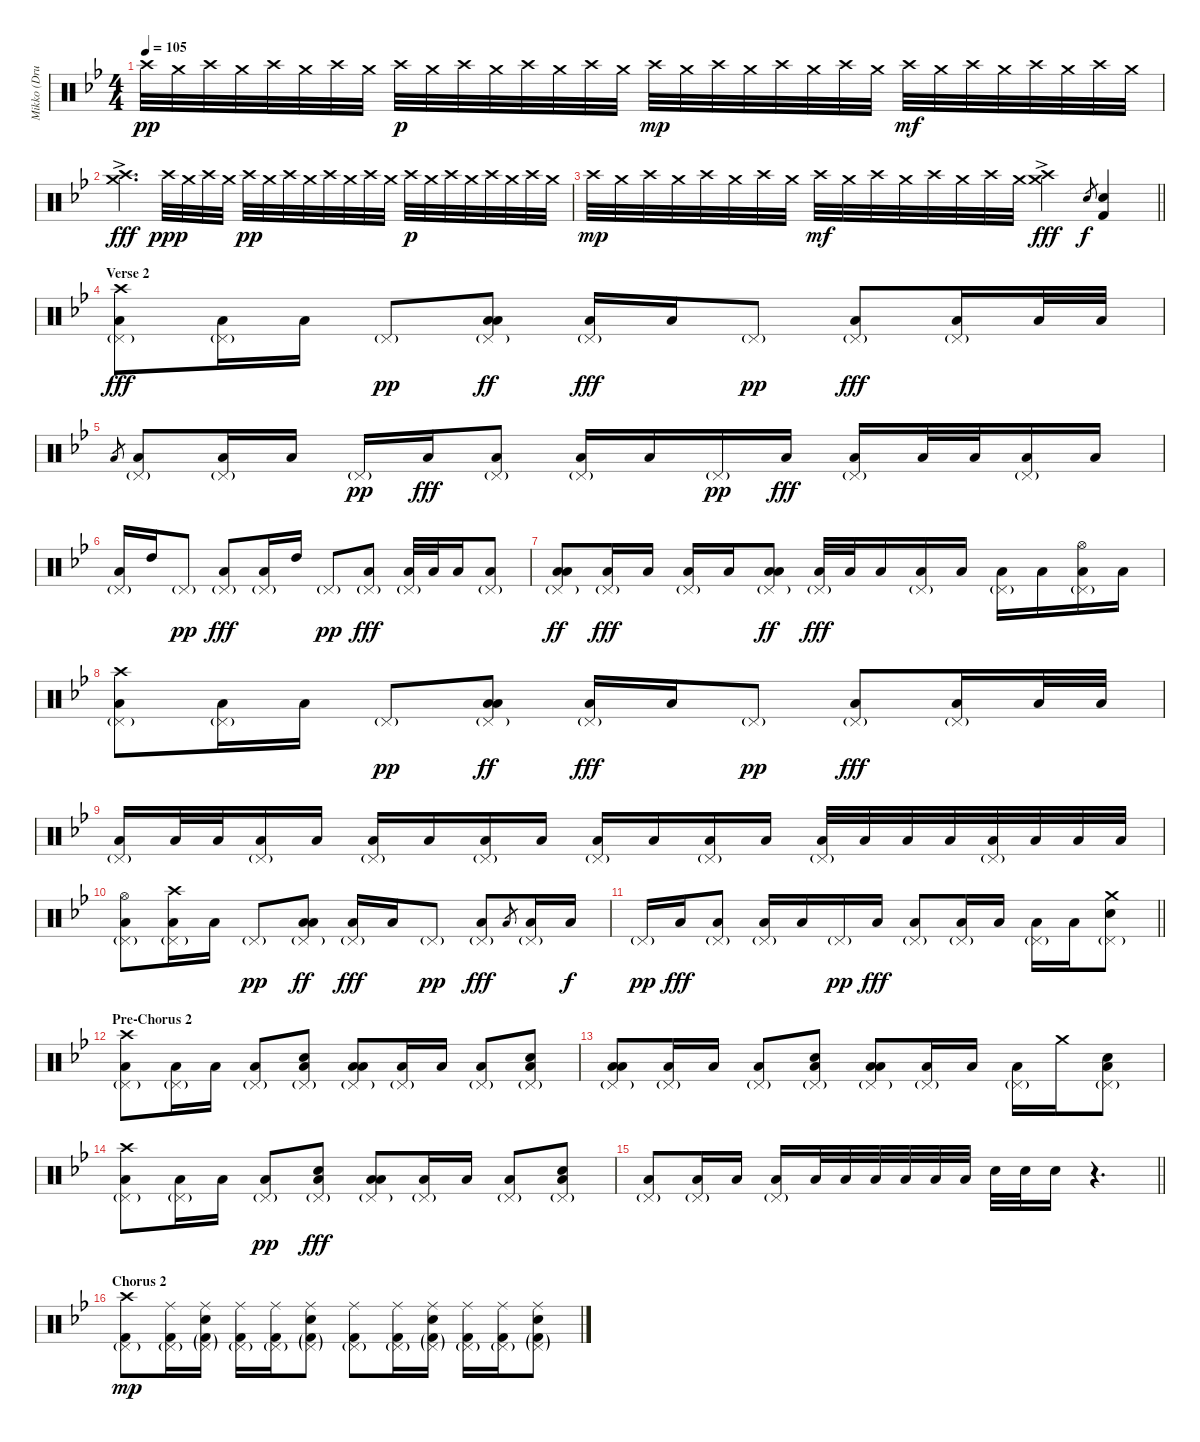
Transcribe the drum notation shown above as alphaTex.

\track ("Mikko (Drums)" "Mikko (Dru") {instrument percussion}
\staff {score}
\articulation defaults
\ts (4 4)
\tempo 105
\clef neutral
\ks bb "Crash high (hit)".32{dy pp} "Crash medium (hit)".32 "Crash high (hit)".32 "Crash medium (hit)".32 "Crash high (hit)".32 "Crash medium (hit)".32 "Crash high (hit)".32 "Crash medium (hit)".32 "Crash high (hit)".32{dy p} "Crash medium (hit)".32 "Crash high (hit)".32 "Crash medium (hit)".32 "Crash high (hit)".32 "Crash medium (hit)".32 "Crash high (hit)".32 "Crash medium (hit)".32 "Crash high (hit)".32{dy mp} "Crash medium (hit)".32 "Crash high (hit)".32 "Crash medium (hit)".32 "Crash high (hit)".32 "Crash medium (hit)".32 "Crash high (hit)".32 "Crash medium (hit)".32 "Crash high (hit)".32{dy mf} "Crash medium (hit)".32 "Crash high (hit)".32 "Crash medium (hit)".32 "Crash high (hit)".32 "Crash medium (hit)".32 "Crash high (hit)".32 "Crash medium (hit)".32
|
("Crash high (hit)"{ac} "Crash medium (hit)"{ac}).4{d dy fff} "Crash high (hit)".32{dy ppp} "Crash medium (hit)".32 "Crash high (hit)".32 "Crash medium (hit)".32 "Crash high (hit)".32{dy pp} "Crash medium (hit)".32 "Crash high (hit)".32 "Crash medium (hit)".32 "Crash high (hit)".32 "Crash medium (hit)".32 "Crash high (hit)".32 "Crash medium (hit)".32 "Crash high (hit)".32{dy p} "Crash medium (hit)".32 "Crash high (hit)".32 "Crash medium (hit)".32 "Crash high (hit)".32 "Crash medium (hit)".32 "Crash high (hit)".32 "Crash medium (hit)".32 |
\barLineRight lightlight "Crash high (hit)".32{dy mp} "Crash medium (hit)".32 "Crash high (hit)".32 "Crash medium (hit)".32 "Crash high (hit)".32 "Crash medium (hit)".32 "Crash high (hit)".32 "Crash medium (hit)".32 "Crash high (hit)".32{dy mf} "Crash medium (hit)".32 "Crash high (hit)".32 "Crash medium (hit)".32 "Crash high (hit)".32 "Crash medium (hit)".32 "Crash high (hit)".32 "Crash medium (hit)".32
("Crash high (hit)"{ac} "Crash medium (hit)"{ac}).4{dy fff} "Electric Snare (hit)".8{gr dy f} ("Electric Snare (hit)" "Kick (hit) 2").4 |
\section ("" "Verse 2")
("Crash high (hit)" "Pedal Hi-Hat (hit)"{g} "Low Floor Tom (hit)").8{dy fff} ("Pedal Hi-Hat (hit)"{g} "Low Floor Tom (hit)").16 "Low Tom (hit)".16 "Pedal Hi-Hat (hit)"{g}.8{dy pp} ("Pedal Hi-Hat (hit)"{g} "Low Tom (hit)" "Low Floor Tom (hit)").8{dy ff} ("Pedal Hi-Hat (hit)"{g} "Low Floor Tom (hit)").16{dy fff} "Low Floor Tom (hit)".16 "Pedal Hi-Hat (hit)"{g}.8{dy pp} ("Pedal Hi-Hat (hit)"{g} "Low Floor Tom (hit)").8{dy fff} ("Pedal Hi-Hat (hit)"{g} "Low Tom (hit)").16 "Low Tom (hit)".32 "Low Tom (hit)".32 |
"Low Tom (hit)".8{gr} ("Pedal Hi-Hat (hit)"{g} "Low Floor Tom (hit)").8 ("Pedal Hi-Hat (hit)"{g} "Low Floor Tom (hit)").16 "Low Tom (hit)".16 "Pedal Hi-Hat (hit)"{g}.16{dy pp} "Low Floor Tom (hit)".16{dy fff} ("Pedal Hi-Hat (hit)"{g} "Low Tom (hit)").8 ("Pedal Hi-Hat (hit)"{g} "Low Floor Tom (hit)").16 "Low Tom (hit)".16 "Pedal Hi-Hat (hit)"{g}.16{dy pp} "Low Floor Tom (hit)".16{dy fff} ("Pedal Hi-Hat (hit)"{g} "Low Tom (hit)").16 "Low Tom (hit)".32 "Low Tom (hit)".32 ("Pedal Hi-Hat (hit)"{g} "Low Tom (hit)").16 "Low Tom (hit)".16 |
("Pedal Hi-Hat (hit)"{g} "Low Floor Tom (hit)").16 "High Tom (hit)".16 "Pedal Hi-Hat (hit)"{g}.8{dy pp} ("Pedal Hi-Hat (hit)"{g} "Low Floor Tom (hit)").8{dy fff} ("Pedal Hi-Hat (hit)"{g} "Low Floor Tom (hit)").16 "High Tom (hit)".16 "Pedal Hi-Hat (hit)"{g}.8{dy pp} ("Pedal Hi-Hat (hit)"{g} "Low Floor Tom (hit)").8{dy fff} ("Pedal Hi-Hat (hit)"{g} "Low Floor Tom (hit)").32 "Low Floor Tom (hit)".32 "Low Floor Tom (hit)".16 ("Pedal Hi-Hat (hit)"{g} "Low Floor Tom (hit)").8 |
("Pedal Hi-Hat (hit)"{g} "Low Floor Tom (hit)" "Low Tom (hit)").8{dy ff} ("Pedal Hi-Hat (hit)"{g} "Low Floor Tom (hit)").16{dy fff} "Low Tom (hit)".16 ("Pedal Hi-Hat (hit)"{g} "Low Floor Tom (hit)").16 "Low Tom (hit)".16 ("Pedal Hi-Hat (hit)"{g} "Low Floor Tom (hit)" "Low Tom (hit)").8{dy ff} ("Pedal Hi-Hat (hit)"{g} "Low Floor Tom (hit)").32{dy fff} "Low Floor Tom (hit)".32 "Low Floor Tom (hit)".16 ("Pedal Hi-Hat (hit)"{g} "Low Floor Tom (hit)").16 "Low Floor Tom (hit)".16 ("Pedal Hi-Hat (hit)"{g} "Low Floor Tom (hit)").16 "Low Floor Tom (hit)".16 ("Hi-Hat (open)" "Pedal Hi-Hat (hit)"{g} "Low Floor Tom (hit)").16 "Low Tom (hit)".16 |
("Crash high (hit)" "Pedal Hi-Hat (hit)"{g} "Low Floor Tom (hit)").8 ("Pedal Hi-Hat (hit)"{g} "Low Floor Tom (hit)").16 "Low Tom (hit)".16 "Pedal Hi-Hat (hit)"{g}.8{dy pp} ("Pedal Hi-Hat (hit)"{g} "Low Tom (hit)" "Low Floor Tom (hit)").8{dy ff} ("Pedal Hi-Hat (hit)"{g} "Low Floor Tom (hit)").16{dy fff} "Low Tom (hit)".16 "Pedal Hi-Hat (hit)"{g}.8{dy pp} ("Pedal Hi-Hat (hit)"{g} "Low Floor Tom (hit)").8{dy fff} ("Pedal Hi-Hat (hit)"{g} "Low Tom (hit)").16 "Low Tom (hit)".32 "Low Tom (hit)".32 |
("Pedal Hi-Hat (hit)"{g} "Low Tom (hit)").16 "Low Tom (hit)".32 "Low Tom (hit)".32 ("Pedal Hi-Hat (hit)"{g} "Low Tom (hit)").16 "Low Tom (hit)".16 ("Pedal Hi-Hat (hit)"{g} "Low Floor Tom (hit)").16 "Low Tom (hit)".16 ("Pedal Hi-Hat (hit)"{g} "Low Floor Tom (hit)").16 "Low Tom (hit)".16 ("Pedal Hi-Hat (hit)"{g} "Low Floor Tom (hit)").16 "Low Tom (hit)".16 ("Pedal Hi-Hat (hit)"{g} "Low Floor Tom (hit)").16 "Low Tom (hit)".16 ("Pedal Hi-Hat (hit)"{g} "Low Tom (hit)").32 "Low Tom (hit)".32 "Low Tom (hit)".32 "Low Tom (hit)".32 ("Pedal Hi-Hat (hit)"{g} "Low Tom (hit)").32 "Low Tom (hit)".32 "Low Tom (hit)".32 "Low Tom (hit)".32 |
("Hi-Hat (open)" "Pedal Hi-Hat (hit)"{g} "Low Floor Tom (hit)").8 ("Crash high (hit)" "Pedal Hi-Hat (hit)"{g} "Low Floor Tom (hit)").16 "Low Tom (hit)".16 "Pedal Hi-Hat (hit)"{g}.8{dy pp} ("Pedal Hi-Hat (hit)"{g} "Low Tom (hit)" "Low Floor Tom (hit)").8{dy ff} ("Pedal Hi-Hat (hit)"{g} "Low Floor Tom (hit)").16{dy fff} "Low Tom (hit)".16 "Pedal Hi-Hat (hit)"{g}.8{dy pp} ("Pedal Hi-Hat (hit)"{g} "Low Floor Tom (hit)").8{dy fff} "Low Floor Tom (hit)".8{gr} ("Pedal Hi-Hat (hit)"{g} "Low Floor Tom (hit)").16 "Low Tom (hit)".16{dy f} |
\barLineRight lightlight "Pedal Hi-Hat (hit)"{g}.16{dy pp} "Low Floor Tom (hit)".16{dy fff}
("Pedal Hi-Hat (hit)"{g} "Low Tom (hit)").8 ("Pedal Hi-Hat (hit)"{g} "Low Floor Tom (hit)").16 "Low Tom (hit)".16 "Pedal Hi-Hat (hit)"{g}.16{dy pp} "Low Floor Tom (hit)".16{dy fff} ("Pedal Hi-Hat (hit)"{g} "Low Tom (hit)").8 ("Pedal Hi-Hat (hit)"{g} "Low Floor Tom (hit)").16 "Low Tom (hit)".16 ("Pedal Hi-Hat (hit)"{g} "Low Floor Tom (hit)").16 "Low Floor Tom (hit)".16 ("Crash medium (hit)" "Pedal Hi-Hat (hit)"{g} "Electric Snare (hit)").8 |
\section ("" "Pre-Chorus 2")
("Crash high (hit)" "Pedal Hi-Hat (hit)"{g} "Low Tom (hit)").8 ("Pedal Hi-Hat (hit)"{g} "Low Floor Tom (hit)").16 "Low Floor Tom (hit)".16 ("Pedal Hi-Hat (hit)"{g} "Low Floor Tom (hit)").8 ("Pedal Hi-Hat (hit)"{g} "Low Floor Tom (hit)" "Electric Snare (hit)").8 ("Pedal Hi-Hat (hit)"{g} "Low Floor Tom (hit)" "Low Tom (hit)").8 ("Pedal Hi-Hat (hit)"{g} "Low Floor Tom (hit)").16 "Low Floor Tom (hit)".16 ("Pedal Hi-Hat (hit)"{g} "Low Floor Tom (hit)").8 ("Pedal Hi-Hat (hit)"{g} "Low Floor Tom (hit)" "Electric Snare (hit)").8 |
("Pedal Hi-Hat (hit)"{g} "Low Floor Tom (hit)" "Low Tom (hit)").8 ("Pedal Hi-Hat (hit)"{g} "Low Floor Tom (hit)").16 "Low Floor Tom (hit)".16 ("Pedal Hi-Hat (hit)"{g} "Low Floor Tom (hit)").8 ("Pedal Hi-Hat (hit)"{g} "Low Floor Tom (hit)" "Electric Snare (hit)").8 ("Pedal Hi-Hat (hit)"{g} "Low Floor Tom (hit)" "Low Tom (hit)").8 ("Pedal Hi-Hat (hit)"{g} "Low Floor Tom (hit)").16 "Low Floor Tom (hit)".16 ("Pedal Hi-Hat (hit)"{g} "Low Floor Tom (hit)").16 "Crash medium (hit)".16 ("Pedal Hi-Hat (hit)"{g} "Low Floor Tom (hit)" "Electric Snare (hit)").8 |
("Crash high (hit)" "Pedal Hi-Hat (hit)"{g} "Low Tom (hit)").8 ("Pedal Hi-Hat (hit)"{g} "Low Floor Tom (hit)").16 "Low Floor Tom (hit)".16 ("Pedal Hi-Hat (hit)"{g} "Low Floor Tom (hit)").8{dy pp} ("Pedal Hi-Hat (hit)"{g} "Low Floor Tom (hit)" "Electric Snare (hit)").8{dy fff} ("Pedal Hi-Hat (hit)"{g} "Low Floor Tom (hit)" "Low Tom (hit)").8 ("Pedal Hi-Hat (hit)"{g} "Low Floor Tom (hit)").16 "Low Floor Tom (hit)".16 ("Pedal Hi-Hat (hit)"{g} "Low Floor Tom (hit)").8 ("Pedal Hi-Hat (hit)"{g} "Low Floor Tom (hit)" "Electric Snare (hit)").8 |
\barLineRight lightlight
("Pedal Hi-Hat (hit)"{g} "Low Floor Tom (hit)").8 ("Pedal Hi-Hat (hit)"{g} "Low Tom (hit)").16 "Low Floor Tom (hit)".16 ("Pedal Hi-Hat (hit)"{g} "Low Tom (hit)").16 "Low Tom (hit)".32 "Low Floor Tom (hit)".32 "Low Tom (hit)".32 "Low Floor Tom (hit)".32 "Low Tom (hit)".32 "Low Floor Tom (hit)".32 "Electric Snare (hit)".32 "Electric Snare (hit)".32 "Electric Snare (hit)".16 r.4{d} |
\section ("" "Chorus 2")
("Crash high (hit)" "Kick (hit) 2" "Pedal Hi-Hat (hit)"{g}).8{dy mp} ("Ride (middle)" "Kick (hit) 2" "Pedal Hi-Hat (hit)"{g}).16 ("Ride (middle)" "Electric Snare (hit)" "Pedal Hi-Hat (hit)"{g} "Kick (hit) 2"{g}).16 ("Ride (middle)" "Kick (hit) 2" "Pedal Hi-Hat (hit)"{g}).16 ("Ride (middle)" "Kick (hit) 2" "Pedal Hi-Hat (hit)"{g}).16 ("Ride (middle)" "Electric Snare (hit)" "Pedal Hi-Hat (hit)"{g} "Kick (hit) 2"{g}).8 ("Ride (middle)" "Kick (hit) 2" "Pedal Hi-Hat (hit)"{g}).8 ("Ride (middle)" "Kick (hit) 2" "Pedal Hi-Hat (hit)"{g}).16 ("Ride (middle)" "Electric Snare (hit)" "Pedal Hi-Hat (hit)"{g} "Kick (hit) 2"{g}).16 ("Ride (middle)" "Kick (hit) 2" "Pedal Hi-Hat (hit)"{g}).16 ("Ride (middle)" "Kick (hit) 2" "Pedal Hi-Hat (hit)"{g}).16 ("Ride (middle)" "Electric Snare (hit)" "Pedal Hi-Hat (hit)"{g} "Kick (hit) 2"{g}).8
